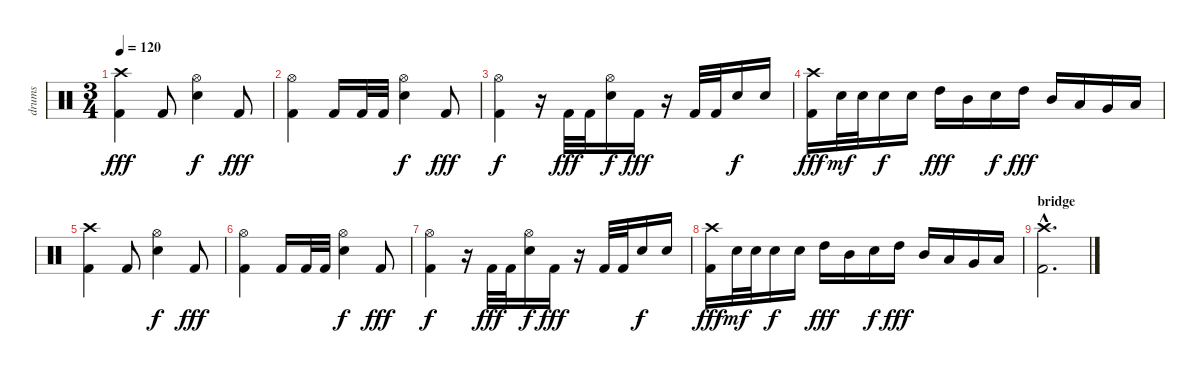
\track ("drums" "drums") {instrument percussion}
\staff {score}
\articulation defaults
\ts (3 4)
\tempo 120
\clef neutral
\ks c
("Crash high (hit)" "Kick (hit) 2").4{dy fff} "Kick (hit) 2".8 ("Hi-Hat (open)" "Snare (hit) 2").4{dy f} "Kick (hit) 2".8{dy fff} |
("Hi-Hat (open)" "Kick (hit) 2").4 "Kick (hit) 2".16 "Kick (hit) 2".32 "Kick (hit) 2".32 ("Hi-Hat (open)" "Snare (hit) 2").4{dy f} "Kick (hit) 2".8{dy fff} |
("Hi-Hat (open)" "Kick (hit) 2").4{dy f} r.16 "Kick (hit) 2".32{dy fff} "Kick (hit) 2".32 ("Hi-Hat (open)" "Snare (hit) 2").16{dy f} "Kick (hit) 2".16{dy fff} r.16 "Kick (hit) 2".32 "Kick (hit) 2".32 "Snare (hit) 2".16{dy f} "Snare (hit) 2".16 |
("Crash high (hit)" "Kick (hit) 2").16{dy fff} "Snare (hit) 2".32{dy mf} "Snare (hit) 2".32 "Snare (hit) 2".16{dy f} "Snare (hit) 2".16 "High Tom (hit)".16{dy fff} "Mid Tom (hit)".16 "Snare (hit) 2".16{dy f} "High Tom (hit)".16{dy fff} "Mid Tom (hit)".16 "Low Tom (hit)".16 "Very Low Tom (hit)".16 "Low Floor Tom (hit)".16 |
("Crash high (hit)" "Kick (hit) 2").4 "Kick (hit) 2".8 ("Hi-Hat (open)" "Snare (hit) 2").4{dy f} "Kick (hit) 2".8{dy fff} |
("Hi-Hat (open)" "Kick (hit) 2").4 "Kick (hit) 2".16 "Kick (hit) 2".32 "Kick (hit) 2".32 ("Hi-Hat (open)" "Snare (hit) 2").4{dy f} "Kick (hit) 2".8{dy fff} |
("Hi-Hat (open)" "Kick (hit) 2").4{dy f} r.16 "Kick (hit) 2".32{dy fff} "Kick (hit) 2".32 ("Hi-Hat (open)" "Snare (hit) 2").16{dy f} "Kick (hit) 2".16{dy fff} r.16 "Kick (hit) 2".32 "Kick (hit) 2".32 "Snare (hit) 2".16{dy f} "Snare (hit) 2".16 |
("Crash high (hit)" "Kick (hit) 2").16{dy fff} "Snare (hit) 2".32{dy mf} "Snare (hit) 2".32 "Snare (hit) 2".16{dy f} "Snare (hit) 2".16 "High Tom (hit)".16{dy fff} "Mid Tom (hit)".16 "Snare (hit) 2".16{dy f} "High Tom (hit)".16{dy fff} "Mid Tom (hit)".16 "Low Tom (hit)".16 "Very Low Tom (hit)".16 "Low Floor Tom (hit)".16 |
\section ("" "bridge")
("Crash high (hit)"{hac} "Kick (hit) 2"{hac}).2{d}
